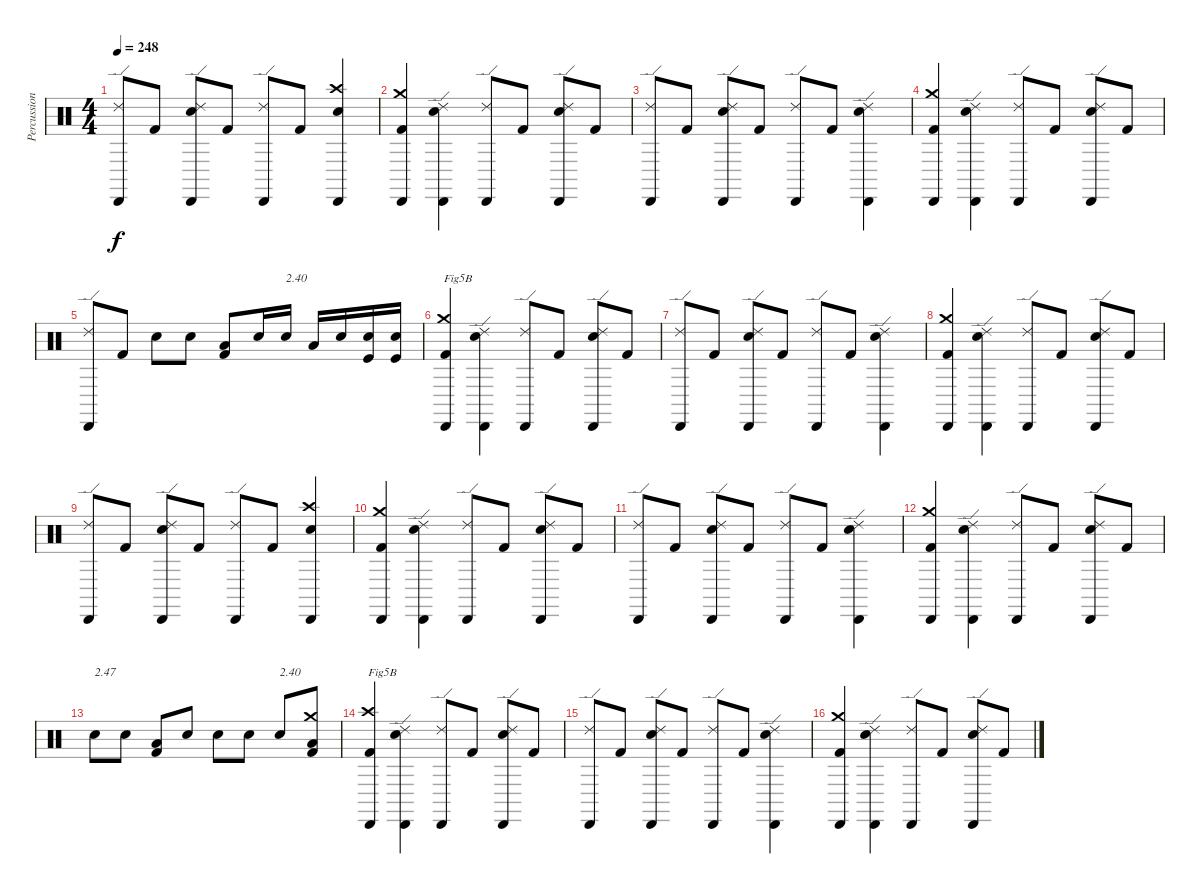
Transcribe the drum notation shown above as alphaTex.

\track ("Percussions" "Percussion") {instrument percussion}
\staff {score}
\articulation defaults
\ts (4 4)
\tempo 248
\clef neutral
\ks c
("Ride (edge) 2" "Cabasa (hit)").8{dy f} "Kick (hit) 2".8 ("Electric Snare (hit)" "Ride (edge) 2" "Cabasa (hit)").8 "Kick (hit) 2".8 ("Ride (edge) 2" "Cabasa (hit)").8 "Kick (hit) 2".8 ("Electric Snare (hit)" "Crash high (hit)" "Cabasa (hit)").4 |
("Kick (hit) 2" "Crash medium (hit)" "Cabasa (hit)").4 ("Electric Snare (hit)" "Ride (edge) 2" "Cabasa (hit)").4 ("Ride (edge) 2" "Cabasa (hit)").8 "Kick (hit) 2".8 ("Electric Snare (hit)" "Ride (edge) 2" "Cabasa (hit)").8 "Kick (hit) 2".8 |
("Ride (edge) 2" "Cabasa (hit)").8 "Kick (hit) 2".8 ("Electric Snare (hit)" "Ride (edge) 2" "Cabasa (hit)").8 "Kick (hit) 2".8 ("Ride (edge) 2" "Cabasa (hit)").8 "Kick (hit) 2".8 ("Electric Snare (hit)" "Ride (edge) 2" "Cabasa (hit)").4 |
("Kick (hit) 2" "Crash medium (hit)" "Cabasa (hit)").4 ("Electric Snare (hit)" "Ride (edge) 2" "Cabasa (hit)").4 ("Ride (edge) 2" "Cabasa (hit)").8 "Kick (hit) 2".8 ("Electric Snare (hit)" "Ride (edge) 2" "Cabasa (hit)").8 "Kick (hit) 2".8 |
("Ride (edge) 2" "Cabasa (hit)").8 "Kick (hit) 2".8 "Electric Snare (hit)".8 "Electric Snare (hit)".8 ("Kick (hit) 2" "Low Floor Tom (hit)").8 "Electric Snare (hit)".16 "Electric Snare (hit)".16{txt "2.40"} "Low Floor Tom (hit)".16 "Electric Snare (hit)".16 ("Kick (hit)" "Electric Snare (hit)").16 ("Kick (hit)" "Electric Snare (hit)").16 |
("Kick (hit) 2" "Crash medium (hit)" "Cabasa (hit)").4{txt "Fig5B"} ("Electric Snare (hit)" "Ride (edge) 2" "Cabasa (hit)").4 ("Ride (edge) 2" "Cabasa (hit)").8 "Kick (hit) 2".8 ("Electric Snare (hit)" "Ride (edge) 2" "Cabasa (hit)").8 "Kick (hit) 2".8 |
("Ride (edge) 2" "Cabasa (hit)").8 "Kick (hit) 2".8 ("Electric Snare (hit)" "Ride (edge) 2" "Cabasa (hit)").8 "Kick (hit) 2".8 ("Ride (edge) 2" "Cabasa (hit)").8 "Kick (hit) 2".8 ("Electric Snare (hit)" "Ride (edge) 2" "Cabasa (hit)").4 |
("Kick (hit) 2" "Crash medium (hit)" "Cabasa (hit)").4 ("Electric Snare (hit)" "Ride (edge) 2" "Cabasa (hit)").4 ("Ride (edge) 2" "Cabasa (hit)").8 "Kick (hit) 2".8 ("Electric Snare (hit)" "Ride (edge) 2" "Cabasa (hit)").8 "Kick (hit) 2".8 |
("Ride (edge) 2" "Cabasa (hit)").8 "Kick (hit) 2".8 ("Electric Snare (hit)" "Ride (edge) 2" "Cabasa (hit)").8 "Kick (hit) 2".8 ("Ride (edge) 2" "Cabasa (hit)").8 "Kick (hit) 2".8 ("Electric Snare (hit)" "Crash high (hit)" "Cabasa (hit)").4 |
("Kick (hit) 2" "Crash medium (hit)" "Cabasa (hit)").4 ("Electric Snare (hit)" "Ride (edge) 2" "Cabasa (hit)").4 ("Ride (edge) 2" "Cabasa (hit)").8 "Kick (hit) 2".8 ("Electric Snare (hit)" "Ride (edge) 2" "Cabasa (hit)").8 "Kick (hit) 2".8 |
("Ride (edge) 2" "Cabasa (hit)").8 "Kick (hit) 2".8 ("Electric Snare (hit)" "Ride (edge) 2" "Cabasa (hit)").8 "Kick (hit) 2".8 ("Ride (edge) 2" "Cabasa (hit)").8 "Kick (hit) 2".8 ("Electric Snare (hit)" "Ride (edge) 2" "Cabasa (hit)").4 |
("Kick (hit) 2" "Crash medium (hit)" "Cabasa (hit)").4 ("Electric Snare (hit)" "Ride (edge) 2" "Cabasa (hit)").4 ("Ride (edge) 2" "Cabasa (hit)").8 "Kick (hit) 2".8 ("Electric Snare (hit)" "Ride (edge) 2" "Cabasa (hit)").8 "Kick (hit) 2".8 |
"Electric Snare (hit)".8{txt "2.47"} "Electric Snare (hit)".8 ("Kick (hit) 2" "Low Floor Tom (hit)").8 "Electric Snare (hit)".8 "Electric Snare (hit)".8 "Electric Snare (hit)".8 "Electric Snare (hit)".8{txt "2.40"} ("Kick (hit) 2" "Low Floor Tom (hit)" "Crash medium (hit)").8 |
("Kick (hit) 2" "Crash high (hit)" "Cabasa (hit)").4{txt "Fig5B"} ("Electric Snare (hit)" "Ride (edge) 2" "Cabasa (hit)").4 ("Ride (edge) 2" "Cabasa (hit)").8 "Kick (hit) 2".8 ("Electric Snare (hit)" "Ride (edge) 2" "Cabasa (hit)").8 "Kick (hit) 2".8 |
("Ride (edge) 2" "Cabasa (hit)").8 "Kick (hit) 2".8 ("Electric Snare (hit)" "Ride (edge) 2" "Cabasa (hit)").8 "Kick (hit) 2".8 ("Ride (edge) 2" "Cabasa (hit)").8 "Kick (hit) 2".8 ("Electric Snare (hit)" "Ride (edge) 2" "Cabasa (hit)").4 |
("Kick (hit) 2" "Crash medium (hit)" "Cabasa (hit)").4 ("Electric Snare (hit)" "Ride (edge) 2" "Cabasa (hit)").4 ("Ride (edge) 2" "Cabasa (hit)").8 "Kick (hit) 2".8 ("Electric Snare (hit)" "Ride (edge) 2" "Cabasa (hit)").8 "Kick (hit) 2".8
